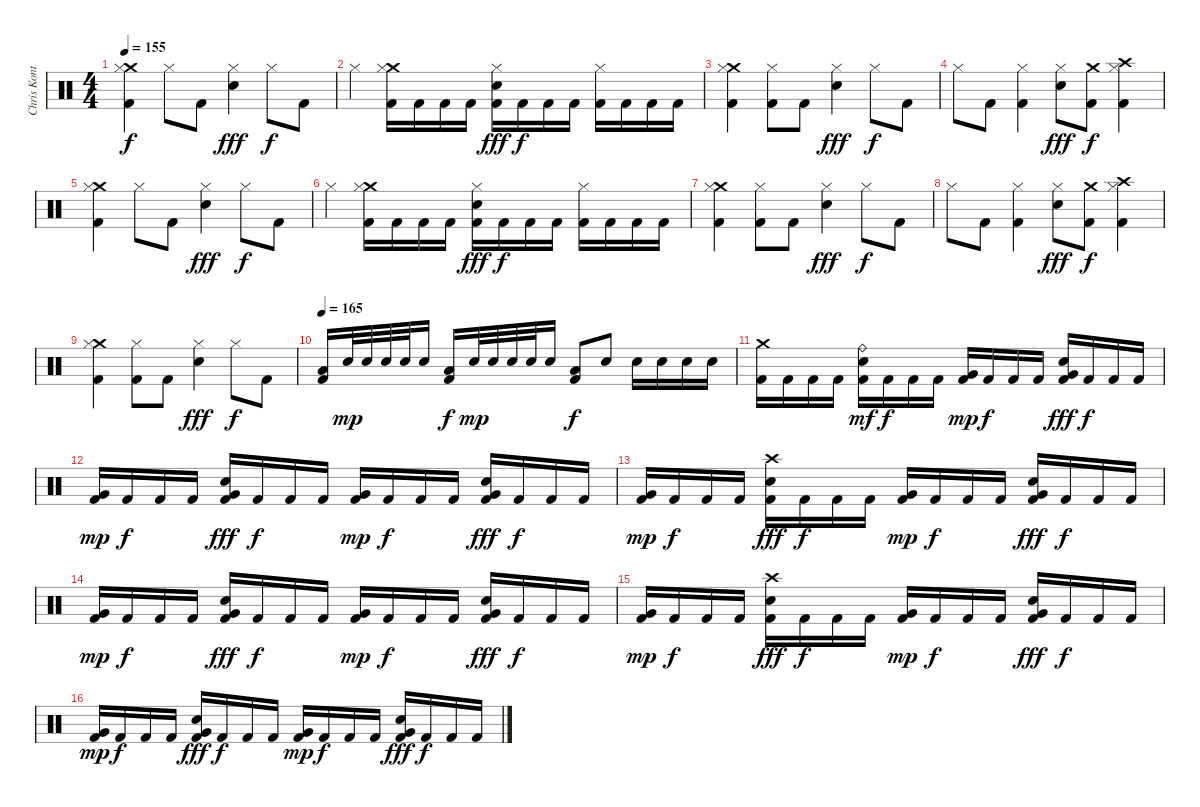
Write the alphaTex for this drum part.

\track ("Chris Kontos" "Chris Kont") {instrument percussion}
\staff {score}
\articulation defaults
\ts (4 4)
\tempo 155
\clef neutral
\ks c
("Crash medium (hit)" "Hi-Hat (closed)" "Kick (hit) 2").4{dy f} "Hi-Hat (closed)".8 "Kick (hit) 2".8 ("Electric Snare (hit)" "Hi-Hat (closed)").4{dy fff} "Hi-Hat (closed)".8{dy f} "Kick (hit) 2".8 |
"Hi-Hat (closed)".4 ("Crash medium (hit)" "Hi-Hat (closed)" "Kick (hit) 2").16 "Kick (hit) 2".16 "Kick (hit) 2".16 "Kick (hit) 2".16 ("Electric Snare (hit)" "Hi-Hat (closed)" "Kick (hit) 2").16{dy fff} "Kick (hit) 2".16{dy f} "Kick (hit) 2".16 "Kick (hit) 2".16 ("Hi-Hat (closed)" "Kick (hit) 2").16 "Kick (hit) 2".16 "Kick (hit) 2".16 "Kick (hit) 2".16 |
("Crash medium (hit)" "Hi-Hat (closed)" "Kick (hit) 2").4 ("Hi-Hat (closed)" "Kick (hit) 2").8 "Kick (hit) 2".8 ("Electric Snare (hit)" "Hi-Hat (closed)").4{dy fff} "Hi-Hat (closed)".8{dy f} "Kick (hit) 2".8 |
"Hi-Hat (closed)".8 "Kick (hit) 2".8 ("Hi-Hat (closed)" "Kick (hit) 2").4 ("Electric Snare (hit)" "Hi-Hat (closed)").8{dy fff} ("Crash medium (hit)" "Kick (hit) 2").8{dy f} ("Crash high (hit)" "Hi-Hat (closed)" "Kick (hit) 2").4 |
("Crash medium (hit)" "Hi-Hat (closed)" "Kick (hit) 2").4 "Hi-Hat (closed)".8 "Kick (hit) 2".8 ("Electric Snare (hit)" "Hi-Hat (closed)").4{dy fff} "Hi-Hat (closed)".8{dy f} "Kick (hit) 2".8 |
"Hi-Hat (closed)".4 ("Crash medium (hit)" "Hi-Hat (closed)" "Kick (hit) 2").16 "Kick (hit) 2".16 "Kick (hit) 2".16 "Kick (hit) 2".16 ("Electric Snare (hit)" "Hi-Hat (closed)" "Kick (hit) 2").16{dy fff} "Kick (hit) 2".16{dy f} "Kick (hit) 2".16 "Kick (hit) 2".16 ("Hi-Hat (closed)" "Kick (hit) 2").16 "Kick (hit) 2".16 "Kick (hit) 2".16 "Kick (hit) 2".16 |
("Crash medium (hit)" "Hi-Hat (closed)" "Kick (hit) 2").4 ("Hi-Hat (closed)" "Kick (hit) 2").8 "Kick (hit) 2".8 ("Electric Snare (hit)" "Hi-Hat (closed)").4{dy fff} "Hi-Hat (closed)".8{dy f} "Kick (hit) 2".8 |
"Hi-Hat (closed)".8 "Kick (hit) 2".8 ("Hi-Hat (closed)" "Kick (hit) 2").4 ("Electric Snare (hit)" "Hi-Hat (closed)").8{dy fff} ("Crash medium (hit)" "Kick (hit) 2").8{dy f} ("Crash high (hit)" "Hi-Hat (closed)" "Kick (hit) 2").4 |
("Crash medium (hit)" "Hi-Hat (closed)" "Kick (hit) 2").4 ("Hi-Hat (closed)" "Kick (hit) 2").8 "Kick (hit) 2".8 ("Electric Snare (hit)" "Hi-Hat (closed)").4{dy fff} "Hi-Hat (closed)".8{dy f} "Kick (hit) 2".8 |
\tempo 165
("Low Tom (hit)" "Kick (hit) 2").16 "Electric Snare (hit)".32{dy mp} "Electric Snare (hit)".32 "Electric Snare (hit)".32 "Electric Snare (hit)".32 "Electric Snare (hit)".16 ("Low Tom (hit)" "Kick (hit) 2").16{dy f} "Electric Snare (hit)".32{dy mp} "Electric Snare (hit)".32 "Electric Snare (hit)".32 "Electric Snare (hit)".32 "Electric Snare (hit)".16 ("Low Tom (hit)" "Kick (hit) 2").8{dy f} "Electric Snare (hit)".8 "Electric Snare (hit)".16 "Electric Snare (hit)".16 "Electric Snare (hit)".16 "Electric Snare (hit)".16 |
("Crash medium (hit)" "Kick (hit) 2").16 "Kick (hit) 2".16 "Kick (hit) 2".16 "Kick (hit) 2".16 ("Electric Snare (hit)" "Ride (bell)" "Kick (hit) 2").16{dy mf} "Kick (hit) 2".16{dy f} "Kick (hit) 2".16 "Kick (hit) 2".16 ("Very Low Tom (hit)" "Kick (hit) 2").16{dy mp} "Kick (hit) 2".16{dy f} "Kick (hit) 2".16 "Kick (hit) 2".16 ("Very Low Tom (hit)" "Electric Snare (hit)" "Kick (hit) 2").16{dy fff} "Kick (hit) 2".16{dy f} "Kick (hit) 2".16 "Kick (hit) 2".16 |
("Very Low Tom (hit)" "Kick (hit) 2").16{dy mp} "Kick (hit) 2".16{dy f} "Kick (hit) 2".16 "Kick (hit) 2".16 ("Very Low Tom (hit)" "Electric Snare (hit)" "Kick (hit) 2").16{dy fff} "Kick (hit) 2".16{dy f} "Kick (hit) 2".16 "Kick (hit) 2".16 ("Very Low Tom (hit)" "Kick (hit) 2").16{dy mp} "Kick (hit) 2".16{dy f} "Kick (hit) 2".16 "Kick (hit) 2".16 ("Very Low Tom (hit)" "Electric Snare (hit)" "Kick (hit) 2").16{dy fff} "Kick (hit) 2".16{dy f} "Kick (hit) 2".16 "Kick (hit) 2".16 |
("Very Low Tom (hit)" "Kick (hit) 2").16{dy mp} "Kick (hit) 2".16{dy f} "Kick (hit) 2".16 "Kick (hit) 2".16 ("Crash high (hit)" "Electric Snare (hit)" "Kick (hit) 2").16{dy fff} "Kick (hit) 2".16{dy f} "Kick (hit) 2".16 "Kick (hit) 2".16 ("Very Low Tom (hit)" "Kick (hit) 2").16{dy mp} "Kick (hit) 2".16{dy f} "Kick (hit) 2".16 "Kick (hit) 2".16 ("Very Low Tom (hit)" "Electric Snare (hit)" "Kick (hit) 2").16{dy fff} "Kick (hit) 2".16{dy f} "Kick (hit) 2".16 "Kick (hit) 2".16 |
("Very Low Tom (hit)" "Kick (hit) 2").16{dy mp} "Kick (hit) 2".16{dy f} "Kick (hit) 2".16 "Kick (hit) 2".16 ("Very Low Tom (hit)" "Electric Snare (hit)" "Kick (hit) 2").16{dy fff} "Kick (hit) 2".16{dy f} "Kick (hit) 2".16 "Kick (hit) 2".16 ("Very Low Tom (hit)" "Kick (hit) 2").16{dy mp} "Kick (hit) 2".16{dy f} "Kick (hit) 2".16 "Kick (hit) 2".16 ("Very Low Tom (hit)" "Electric Snare (hit)" "Kick (hit) 2").16{dy fff} "Kick (hit) 2".16{dy f} "Kick (hit) 2".16 "Kick (hit) 2".16 |
("Very Low Tom (hit)" "Kick (hit) 2").16{dy mp} "Kick (hit) 2".16{dy f} "Kick (hit) 2".16 "Kick (hit) 2".16 ("Crash high (hit)" "Electric Snare (hit)" "Kick (hit) 2").16{dy fff} "Kick (hit) 2".16{dy f} "Kick (hit) 2".16 "Kick (hit) 2".16 ("Very Low Tom (hit)" "Kick (hit) 2").16{dy mp} "Kick (hit) 2".16{dy f} "Kick (hit) 2".16 "Kick (hit) 2".16 ("Very Low Tom (hit)" "Electric Snare (hit)" "Kick (hit) 2").16{dy fff} "Kick (hit) 2".16{dy f} "Kick (hit) 2".16 "Kick (hit) 2".16 |
("Very Low Tom (hit)" "Kick (hit) 2").16{dy mp} "Kick (hit) 2".16{dy f} "Kick (hit) 2".16 "Kick (hit) 2".16 ("Very Low Tom (hit)" "Electric Snare (hit)" "Kick (hit) 2").16{dy fff} "Kick (hit) 2".16{dy f} "Kick (hit) 2".16 "Kick (hit) 2".16 ("Very Low Tom (hit)" "Kick (hit) 2").16{dy mp} "Kick (hit) 2".16{dy f} "Kick (hit) 2".16 "Kick (hit) 2".16 ("Very Low Tom (hit)" "Electric Snare (hit)" "Kick (hit) 2").16{dy fff} "Kick (hit) 2".16{dy f} "Kick (hit) 2".16 "Kick (hit) 2".16
